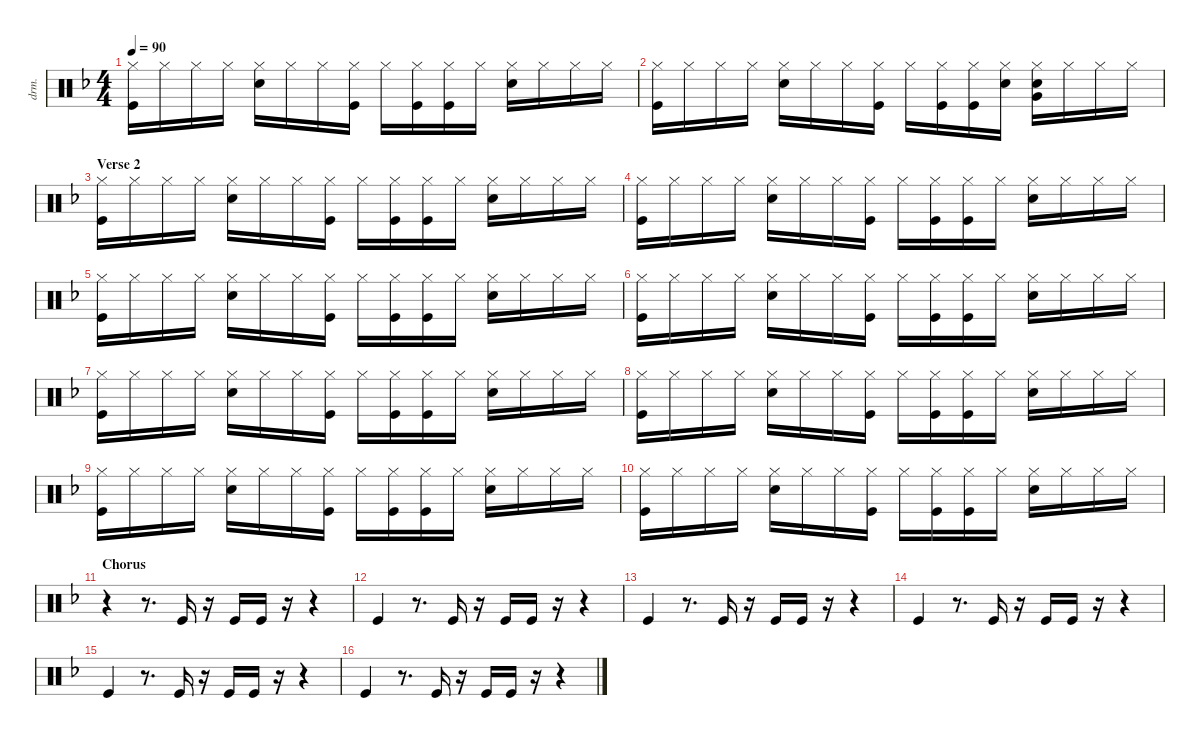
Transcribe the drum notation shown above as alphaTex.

\defaultSystemsLayout 4
\hideDynamics
\bracketExtendMode nobrackets
\track ("Drumkit" "drm.") {instrument percussion}
\staff {score}
\articulation defaults
\ts (4 4)
\tempo 90
\clef neutral
\ks f
("Hi-Hat (closed)"{acc forcenatural} "Kick (hit)"{acc forcenatural}).16{dy mf} "Hi-Hat (closed)"{acc forcenatural}.16 "Hi-Hat (closed)"{acc forcenatural}.16 "Hi-Hat (closed)"{acc forcenatural}.16 ("Hi-Hat (closed)"{acc forcenatural} "Snare (hit) 2"{acc forcenatural}).16 "Hi-Hat (closed)"{acc forcenatural}.16 "Hi-Hat (closed)"{acc forcenatural}.16 ("Hi-Hat (closed)"{acc forcenatural} "Kick (hit)"{acc forcenatural}).16 "Hi-Hat (closed)"{acc forcenatural}.16 ("Hi-Hat (closed)"{acc forcenatural} "Kick (hit)"{acc forcenatural}).16 ("Hi-Hat (closed)"{acc forcenatural} "Kick (hit)"{acc forcenatural}).16 "Hi-Hat (closed)"{acc forcenatural}.16 ("Hi-Hat (closed)"{acc forcenatural} "Snare (hit) 2"{acc forcenatural}).16 "Hi-Hat (closed)"{acc forcenatural}.16 "Hi-Hat (closed)"{acc forcenatural}.16 "Hi-Hat (closed)"{acc forcenatural}.16 |
("Hi-Hat (closed)"{acc forcenatural} "Kick (hit)"{acc forcenatural}).16 "Hi-Hat (closed)"{acc forcenatural}.16 "Hi-Hat (closed)"{acc forcenatural}.16 "Hi-Hat (closed)"{acc forcenatural}.16 ("Hi-Hat (closed)"{acc forcenatural} "Snare (hit) 2"{acc forcenatural}).16 "Hi-Hat (closed)"{acc forcenatural}.16 "Hi-Hat (closed)"{acc forcenatural}.16 ("Hi-Hat (closed)"{acc forcenatural} "Kick (hit)"{acc forcenatural}).16 "Hi-Hat (closed)"{acc forcenatural}.16 ("Hi-Hat (closed)"{acc forcenatural} "Kick (hit)"{acc forcenatural}).16 ("Hi-Hat (closed)"{acc forcenatural} "Kick (hit)"{acc forcenatural}).16 ("Hi-Hat (closed)"{acc forcenatural} "Snare (hit) 2"{acc forcenatural}).16 ("Hi-Hat (closed)"{acc forcenatural} "Snare (hit) 2"{acc forcenatural} "Very Low Tom (hit)"{acc forcenatural}).16 "Hi-Hat (closed)"{acc forcenatural}.16 "Hi-Hat (closed)"{acc forcenatural}.16 "Hi-Hat (closed)"{acc forcenatural}.16 |
\section ("" "Verse 2")
("Hi-Hat (closed)"{acc forcenatural} "Kick (hit)"{acc forcenatural}).16 "Hi-Hat (closed)"{acc forcenatural}.16 "Hi-Hat (closed)"{acc forcenatural}.16 "Hi-Hat (closed)"{acc forcenatural}.16 ("Hi-Hat (closed)"{acc forcenatural} "Snare (hit) 2"{acc forcenatural}).16 "Hi-Hat (closed)"{acc forcenatural}.16 "Hi-Hat (closed)"{acc forcenatural}.16 ("Hi-Hat (closed)"{acc forcenatural} "Kick (hit)"{acc forcenatural}).16 "Hi-Hat (closed)"{acc forcenatural}.16 ("Hi-Hat (closed)"{acc forcenatural} "Kick (hit)"{acc forcenatural}).16 ("Hi-Hat (closed)"{acc forcenatural} "Kick (hit)"{acc forcenatural}).16 "Hi-Hat (closed)"{acc forcenatural}.16 ("Hi-Hat (closed)"{acc forcenatural} "Snare (hit) 2"{acc forcenatural}).16 "Hi-Hat (closed)"{acc forcenatural}.16 "Hi-Hat (closed)"{acc forcenatural}.16 "Hi-Hat (closed)"{acc forcenatural}.16 |
("Hi-Hat (closed)"{acc forcenatural} "Kick (hit)"{acc forcenatural}).16 "Hi-Hat (closed)"{acc forcenatural}.16 "Hi-Hat (closed)"{acc forcenatural}.16 "Hi-Hat (closed)"{acc forcenatural}.16 ("Hi-Hat (closed)"{acc forcenatural} "Snare (hit) 2"{acc forcenatural}).16 "Hi-Hat (closed)"{acc forcenatural}.16 "Hi-Hat (closed)"{acc forcenatural}.16 ("Hi-Hat (closed)"{acc forcenatural} "Kick (hit)"{acc forcenatural}).16 "Hi-Hat (closed)"{acc forcenatural}.16 ("Hi-Hat (closed)"{acc forcenatural} "Kick (hit)"{acc forcenatural}).16 ("Hi-Hat (closed)"{acc forcenatural} "Kick (hit)"{acc forcenatural}).16 "Hi-Hat (closed)"{acc forcenatural}.16 ("Hi-Hat (closed)"{acc forcenatural} "Snare (hit) 2"{acc forcenatural}).16 "Hi-Hat (closed)"{acc forcenatural}.16 "Hi-Hat (closed)"{acc forcenatural}.16 "Hi-Hat (closed)"{acc forcenatural}.16 |
("Hi-Hat (closed)"{acc forcenatural} "Kick (hit)"{acc forcenatural}).16 "Hi-Hat (closed)"{acc forcenatural}.16 "Hi-Hat (closed)"{acc forcenatural}.16 "Hi-Hat (closed)"{acc forcenatural}.16 ("Hi-Hat (closed)"{acc forcenatural} "Snare (hit) 2"{acc forcenatural}).16 "Hi-Hat (closed)"{acc forcenatural}.16 "Hi-Hat (closed)"{acc forcenatural}.16 ("Hi-Hat (closed)"{acc forcenatural} "Kick (hit)"{acc forcenatural}).16 "Hi-Hat (closed)"{acc forcenatural}.16 ("Hi-Hat (closed)"{acc forcenatural} "Kick (hit)"{acc forcenatural}).16 ("Hi-Hat (closed)"{acc forcenatural} "Kick (hit)"{acc forcenatural}).16 "Hi-Hat (closed)"{acc forcenatural}.16 ("Hi-Hat (closed)"{acc forcenatural} "Snare (hit) 2"{acc forcenatural}).16 "Hi-Hat (closed)"{acc forcenatural}.16 "Hi-Hat (closed)"{acc forcenatural}.16 "Hi-Hat (closed)"{acc forcenatural}.16 |
("Hi-Hat (closed)"{acc forcenatural} "Kick (hit)"{acc forcenatural}).16 "Hi-Hat (closed)"{acc forcenatural}.16 "Hi-Hat (closed)"{acc forcenatural}.16 "Hi-Hat (closed)"{acc forcenatural}.16 ("Hi-Hat (closed)"{acc forcenatural} "Snare (hit) 2"{acc forcenatural}).16 "Hi-Hat (closed)"{acc forcenatural}.16 "Hi-Hat (closed)"{acc forcenatural}.16 ("Hi-Hat (closed)"{acc forcenatural} "Kick (hit)"{acc forcenatural}).16 "Hi-Hat (closed)"{acc forcenatural}.16 ("Hi-Hat (closed)"{acc forcenatural} "Kick (hit)"{acc forcenatural}).16 ("Hi-Hat (closed)"{acc forcenatural} "Kick (hit)"{acc forcenatural}).16 "Hi-Hat (closed)"{acc forcenatural}.16 ("Hi-Hat (closed)"{acc forcenatural} "Snare (hit) 2"{acc forcenatural}).16 "Hi-Hat (closed)"{acc forcenatural}.16 "Hi-Hat (closed)"{acc forcenatural}.16 "Hi-Hat (closed)"{acc forcenatural}.16 |
("Hi-Hat (closed)"{acc forcenatural} "Kick (hit)"{acc forcenatural}).16 "Hi-Hat (closed)"{acc forcenatural}.16 "Hi-Hat (closed)"{acc forcenatural}.16 "Hi-Hat (closed)"{acc forcenatural}.16 ("Hi-Hat (closed)"{acc forcenatural} "Snare (hit) 2"{acc forcenatural}).16 "Hi-Hat (closed)"{acc forcenatural}.16 "Hi-Hat (closed)"{acc forcenatural}.16 ("Hi-Hat (closed)"{acc forcenatural} "Kick (hit)"{acc forcenatural}).16 "Hi-Hat (closed)"{acc forcenatural}.16 ("Hi-Hat (closed)"{acc forcenatural} "Kick (hit)"{acc forcenatural}).16 ("Hi-Hat (closed)"{acc forcenatural} "Kick (hit)"{acc forcenatural}).16 "Hi-Hat (closed)"{acc forcenatural}.16 ("Hi-Hat (closed)"{acc forcenatural} "Snare (hit) 2"{acc forcenatural}).16 "Hi-Hat (closed)"{acc forcenatural}.16 "Hi-Hat (closed)"{acc forcenatural}.16 "Hi-Hat (closed)"{acc forcenatural}.16 |
("Hi-Hat (closed)"{acc forcenatural} "Kick (hit)"{acc forcenatural}).16 "Hi-Hat (closed)"{acc forcenatural}.16 "Hi-Hat (closed)"{acc forcenatural}.16 "Hi-Hat (closed)"{acc forcenatural}.16 ("Hi-Hat (closed)"{acc forcenatural} "Snare (hit) 2"{acc forcenatural}).16 "Hi-Hat (closed)"{acc forcenatural}.16 "Hi-Hat (closed)"{acc forcenatural}.16 ("Hi-Hat (closed)"{acc forcenatural} "Kick (hit)"{acc forcenatural}).16 "Hi-Hat (closed)"{acc forcenatural}.16 ("Hi-Hat (closed)"{acc forcenatural} "Kick (hit)"{acc forcenatural}).16 ("Hi-Hat (closed)"{acc forcenatural} "Kick (hit)"{acc forcenatural}).16 "Hi-Hat (closed)"{acc forcenatural}.16 ("Hi-Hat (closed)"{acc forcenatural} "Snare (hit) 2"{acc forcenatural}).16 "Hi-Hat (closed)"{acc forcenatural}.16 "Hi-Hat (closed)"{acc forcenatural}.16 "Hi-Hat (closed)"{acc forcenatural}.16 |
("Hi-Hat (closed)"{acc forcenatural} "Kick (hit)"{acc forcenatural}).16 "Hi-Hat (closed)"{acc forcenatural}.16 "Hi-Hat (closed)"{acc forcenatural}.16 "Hi-Hat (closed)"{acc forcenatural}.16 ("Hi-Hat (closed)"{acc forcenatural} "Snare (hit) 2"{acc forcenatural}).16 "Hi-Hat (closed)"{acc forcenatural}.16 "Hi-Hat (closed)"{acc forcenatural}.16 ("Hi-Hat (closed)"{acc forcenatural} "Kick (hit)"{acc forcenatural}).16 "Hi-Hat (closed)"{acc forcenatural}.16 ("Hi-Hat (closed)"{acc forcenatural} "Kick (hit)"{acc forcenatural}).16 ("Hi-Hat (closed)"{acc forcenatural} "Kick (hit)"{acc forcenatural}).16 "Hi-Hat (closed)"{acc forcenatural}.16 ("Hi-Hat (closed)"{acc forcenatural} "Snare (hit) 2"{acc forcenatural}).16 "Hi-Hat (closed)"{acc forcenatural}.16 "Hi-Hat (closed)"{acc forcenatural}.16 "Hi-Hat (closed)"{acc forcenatural}.16 |
("Hi-Hat (closed)"{acc forcenatural} "Kick (hit)"{acc forcenatural}).16 "Hi-Hat (closed)"{acc forcenatural}.16 "Hi-Hat (closed)"{acc forcenatural}.16 "Hi-Hat (closed)"{acc forcenatural}.16 ("Hi-Hat (closed)"{acc forcenatural} "Snare (hit) 2"{acc forcenatural}).16 "Hi-Hat (closed)"{acc forcenatural}.16 "Hi-Hat (closed)"{acc forcenatural}.16 ("Hi-Hat (closed)"{acc forcenatural} "Kick (hit)"{acc forcenatural}).16 "Hi-Hat (closed)"{acc forcenatural}.16 ("Hi-Hat (closed)"{acc forcenatural} "Kick (hit)"{acc forcenatural}).16 ("Hi-Hat (closed)"{acc forcenatural} "Kick (hit)"{acc forcenatural}).16 "Hi-Hat (closed)"{acc forcenatural}.16 ("Hi-Hat (closed)"{acc forcenatural} "Snare (hit) 2"{acc forcenatural}).16 "Hi-Hat (closed)"{acc forcenatural}.16 "Hi-Hat (closed)"{acc forcenatural}.16 "Hi-Hat (closed)"{acc forcenatural}.16 |
\section ("" "Chorus")
r.4 r.8{d} "Kick (hit)"{acc forcenatural}.16 r.16 "Kick (hit)"{acc forcenatural}.16 "Kick (hit)"{acc forcenatural}.16 r.16 r.4 |
"Kick (hit)"{acc forcenatural}.4 r.8{d} "Kick (hit)"{acc forcenatural}.16 r.16 "Kick (hit)"{acc forcenatural}.16 "Kick (hit)"{acc forcenatural}.16 r.16 r.4 |
"Kick (hit)"{acc forcenatural}.4 r.8{d} "Kick (hit)"{acc forcenatural}.16 r.16 "Kick (hit)"{acc forcenatural}.16 "Kick (hit)"{acc forcenatural}.16 r.16 r.4 |
"Kick (hit)"{acc forcenatural}.4 r.8{d} "Kick (hit)"{acc forcenatural}.16 r.16 "Kick (hit)"{acc forcenatural}.16 "Kick (hit)"{acc forcenatural}.16 r.16 r.4 |
"Kick (hit)"{acc forcenatural}.4 r.8{d} "Kick (hit)"{acc forcenatural}.16 r.16 "Kick (hit)"{acc forcenatural}.16 "Kick (hit)"{acc forcenatural}.16 r.16 r.4 |
"Kick (hit)"{acc forcenatural}.4 r.8{d} "Kick (hit)"{acc forcenatural}.16 r.16 "Kick (hit)"{acc forcenatural}.16 "Kick (hit)"{acc forcenatural}.16 r.16 r.4
